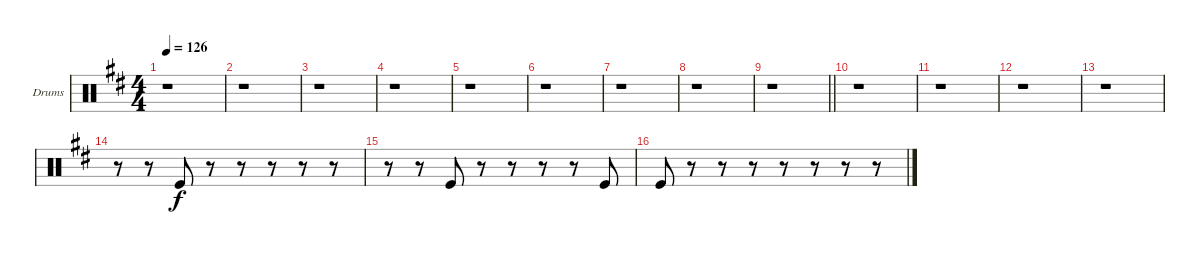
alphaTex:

\bracketExtendMode groupsimilarinstruments
\firstSystemTrackNameOrientation horizontal
\otherSystemsTrackNameOrientation horizontal
\track ("Drumkit" "Drums") {instrument percussion}
\staff {score}
\articulation defaults
\ts (4 4)
\tempo 126
\clef neutral
\ks d
r.1{dy f} |
r.1 |
\scale
0.3829 r.1 |
\scale
0.294983 r.1 |
\scale
0.321899 r.1 |
\scale
0.634111 r.1 |
\scale
0.365973 r.1 |
\scale
0.364305 r.1 |
\scale
0.361541
\barLineRight lightlight
r.1 |
\scale
0.274306 r.1 |
r.1 |
r.1 |
r.1 |
r.8 r.8 "Kick (hit)".8 r.8 r.8 r.8 r.8 r.8 |
r.8 r.8 "Kick (hit)".8 r.8 r.8 r.8 r.8 "Kick (hit)".8 |
"Kick (hit)".8 r.8 r.8 r.8 r.8 r.8 r.8 r.8
